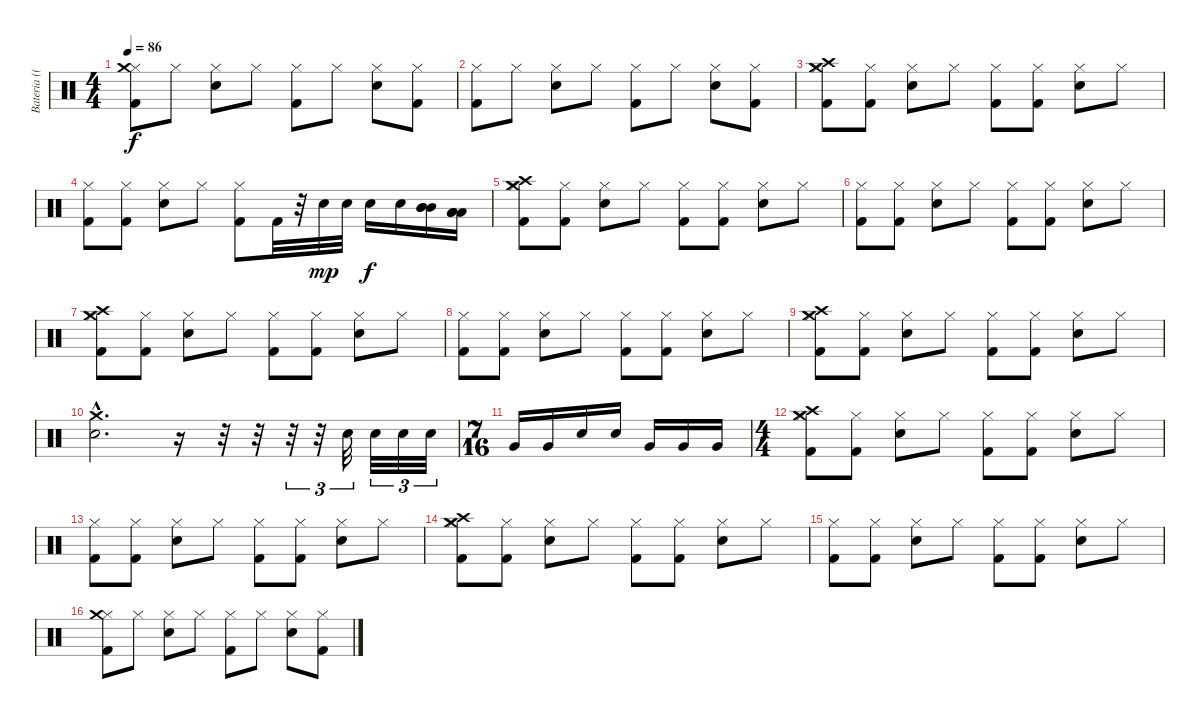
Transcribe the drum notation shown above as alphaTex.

\track ("Bateria ((Matt))" "Bateria ((") {instrument percussion}
\staff {score}
\articulation defaults
\ts (4 4)
\tempo 86
\clef neutral
\ks c
("Hi-Hat (closed)" "Crash medium (hit)" "Kick (hit) 2").8{dy f} "Hi-Hat (closed)".8 ("Hi-Hat (closed)" "Electric Snare (hit)").8 "Hi-Hat (closed)".8 ("Hi-Hat (closed)" "Kick (hit) 2").8 "Hi-Hat (closed)".8 ("Hi-Hat (closed)" "Electric Snare (hit)").8 ("Hi-Hat (closed)" "Kick (hit) 2").8 |
("Hi-Hat (closed)" "Kick (hit) 2").8 "Hi-Hat (closed)".8 ("Hi-Hat (closed)" "Electric Snare (hit)").8 "Hi-Hat (closed)".8 ("Hi-Hat (closed)" "Kick (hit) 2").8 "Hi-Hat (closed)".8 ("Hi-Hat (closed)" "Electric Snare (hit)").8 ("Hi-Hat (closed)" "Kick (hit) 2").8 |
("Hi-Hat (closed)" "Crash high (hit)" "Crash medium (hit)" "Kick (hit) 2").8 ("Hi-Hat (closed)" "Kick (hit) 2").8 ("Hi-Hat (closed)" "Electric Snare (hit)").8 "Hi-Hat (closed)".8 ("Hi-Hat (closed)" "Kick (hit) 2").8 ("Hi-Hat (closed)" "Kick (hit) 2").8 ("Hi-Hat (closed)" "Electric Snare (hit)").8 "Hi-Hat (closed)".8 |
("Hi-Hat (closed)" "Kick (hit) 2").8 ("Hi-Hat (closed)" "Kick (hit) 2").8 ("Hi-Hat (closed)" "Electric Snare (hit)").8 "Hi-Hat (closed)".8 ("Hi-Hat (closed)" "Kick (hit) 2").8 "Kick (hit) 2".32 r.32 "Electric Snare (hit)".32{dy mp} "Electric Snare (hit)".32 "Electric Snare (hit)".16{dy f} "Electric Snare (hit)".16 ("Mid Tom (hit)" "Mid Tom (hit)" "Mid Tom (hit)").16 ("Low Tom (hit)" "Low Tom (hit)" "Low Tom (hit)").16 |
("Hi-Hat (closed)" "Crash high (hit)" "Crash medium (hit)" "Kick (hit) 2").8 ("Hi-Hat (closed)" "Kick (hit) 2").8 ("Hi-Hat (closed)" "Electric Snare (hit)").8 "Hi-Hat (closed)".8 ("Hi-Hat (closed)" "Kick (hit) 2").8 ("Hi-Hat (closed)" "Kick (hit) 2").8 ("Hi-Hat (closed)" "Electric Snare (hit)").8 "Hi-Hat (closed)".8 |
("Hi-Hat (closed)" "Kick (hit) 2").8 ("Hi-Hat (closed)" "Kick (hit) 2").8 ("Hi-Hat (closed)" "Electric Snare (hit)").8 "Hi-Hat (closed)".8 ("Hi-Hat (closed)" "Kick (hit) 2").8 ("Hi-Hat (closed)" "Kick (hit) 2").8 ("Hi-Hat (closed)" "Electric Snare (hit)").8 "Hi-Hat (closed)".8 |
("Hi-Hat (closed)" "Crash high (hit)" "Crash medium (hit)" "Kick (hit) 2").8 ("Hi-Hat (closed)" "Kick (hit) 2").8 ("Hi-Hat (closed)" "Electric Snare (hit)").8 "Hi-Hat (closed)".8 ("Hi-Hat (closed)" "Kick (hit) 2").8 ("Hi-Hat (closed)" "Kick (hit) 2").8 ("Hi-Hat (closed)" "Electric Snare (hit)").8 "Hi-Hat (closed)".8 |
("Hi-Hat (closed)" "Kick (hit) 2").8 ("Hi-Hat (closed)" "Kick (hit) 2").8 ("Hi-Hat (closed)" "Electric Snare (hit)").8 "Hi-Hat (closed)".8 ("Hi-Hat (closed)" "Kick (hit) 2").8 ("Hi-Hat (closed)" "Kick (hit) 2").8 ("Hi-Hat (closed)" "Electric Snare (hit)").8 "Hi-Hat (closed)".8 |
("Hi-Hat (closed)" "Crash high (hit)" "Crash medium (hit)" "Kick (hit) 2").8 ("Hi-Hat (closed)" "Kick (hit) 2").8 ("Hi-Hat (closed)" "Electric Snare (hit)").8 "Hi-Hat (closed)".8 ("Hi-Hat (closed)" "Kick (hit) 2").8 ("Hi-Hat (closed)" "Kick (hit) 2").8 ("Hi-Hat (closed)" "Electric Snare (hit)").8 "Hi-Hat (closed)".8 |
("Crash medium (hit)"{hac} "Electric Snare (hit)"{hac}).2{d} r.16 r.32 r.32 r.32{tu (3 2)} r.32{tu (3 2)} "Electric Snare (hit)".32{tu (3 2)} "Electric Snare (hit)".32{tu (3 2)} "Electric Snare (hit)".32{tu (3 2)} "Electric Snare (hit)".32{tu (3 2)} |
\ts (7 16)
"Very Low Tom (hit)".16 "Very Low Tom (hit)".16 "Electric Snare (hit)".16 "Electric Snare (hit)".16 "Very Low Tom (hit)".16 "Very Low Tom (hit)".16 "Very Low Tom (hit)".16 |
\ts (4 4)
("Hi-Hat (closed)" "Crash high (hit)" "Crash medium (hit)" "Kick (hit) 2").8 ("Hi-Hat (closed)" "Kick (hit) 2").8 ("Hi-Hat (closed)" "Electric Snare (hit)").8 "Hi-Hat (closed)".8 ("Hi-Hat (closed)" "Kick (hit) 2").8 ("Hi-Hat (closed)" "Kick (hit) 2").8 ("Hi-Hat (closed)" "Electric Snare (hit)").8 "Hi-Hat (closed)".8 |
("Hi-Hat (closed)" "Kick (hit) 2").8 ("Hi-Hat (closed)" "Kick (hit) 2").8 ("Hi-Hat (closed)" "Electric Snare (hit)").8 "Hi-Hat (closed)".8 ("Hi-Hat (closed)" "Kick (hit) 2").8 ("Hi-Hat (closed)" "Kick (hit) 2").8 ("Hi-Hat (closed)" "Electric Snare (hit)").8 "Hi-Hat (closed)".8 |
("Hi-Hat (closed)" "Crash high (hit)" "Crash medium (hit)" "Kick (hit) 2").8 ("Hi-Hat (closed)" "Kick (hit) 2").8 ("Hi-Hat (closed)" "Electric Snare (hit)").8 "Hi-Hat (closed)".8 ("Hi-Hat (closed)" "Kick (hit) 2").8 ("Hi-Hat (closed)" "Kick (hit) 2").8 ("Hi-Hat (closed)" "Electric Snare (hit)").8 "Hi-Hat (closed)".8 |
("Hi-Hat (closed)" "Kick (hit) 2").8 ("Hi-Hat (closed)" "Kick (hit) 2").8 ("Hi-Hat (closed)" "Electric Snare (hit)").8 "Hi-Hat (closed)".8 ("Hi-Hat (closed)" "Kick (hit) 2").8 ("Hi-Hat (closed)" "Kick (hit) 2").8 ("Hi-Hat (closed)" "Electric Snare (hit)").8 "Hi-Hat (closed)".8 |
("Hi-Hat (closed)" "Crash medium (hit)" "Kick (hit) 2").8 "Hi-Hat (closed)".8 ("Hi-Hat (closed)" "Electric Snare (hit)").8 "Hi-Hat (closed)".8 ("Hi-Hat (closed)" "Kick (hit) 2").8 "Hi-Hat (closed)".8 ("Hi-Hat (closed)" "Electric Snare (hit)").8 ("Hi-Hat (closed)" "Kick (hit) 2").8
